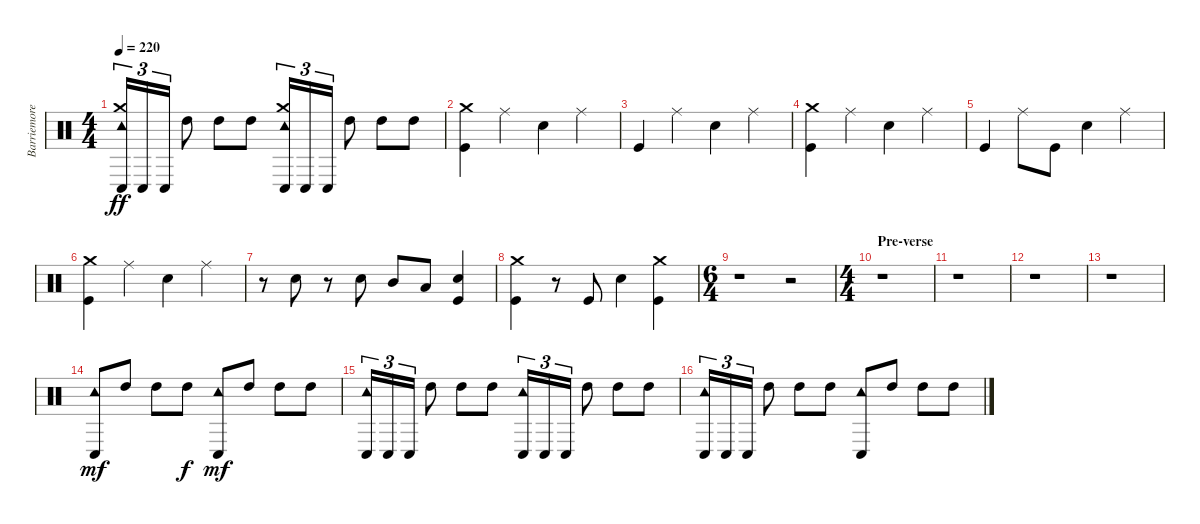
\track ("Barriemore Barlow (Drums)" "Barriemore") {instrument percussion}
\staff {score}
\articulation defaults
\ts (4 4)
\tempo 220
\clef neutral
\ks c
("Tambourine (hit)" "Crash medium (hit)" "Conga low (hit)").16{tu (3 2) dy ff} "Conga low (hit)".16{tu (3 2)} "Conga low (hit)".16{tu (3 2)} "High Tom (hit)".8 "High Tom (hit)".8 "High Tom (hit)".8 ("Tambourine (hit)" "Crash medium (hit)" "Conga low (hit)").16{tu (3 2)} "Conga low (hit)".16{tu (3 2)} "Conga low (hit)".16{tu (3 2)} "High Tom (hit)".8 "High Tom (hit)".8 "High Tom (hit)".8 |
("Kick (hit)" "Crash medium (hit)").4 "Ride (middle)".4 "Snare (hit) 2".4 "Ride (middle)".4 |
"Kick (hit)".4 "Ride (middle)".4 "Snare (hit) 2".4 "Ride (middle)".4 |
("Kick (hit)" "Crash medium (hit)").4 "Ride (middle)".4 "Snare (hit) 2".4 "Ride (middle)".4 |
"Kick (hit)".4 "Ride (middle)".8 "Kick (hit)".8 "Snare (hit) 2".4 "Ride (middle)".4 |
("Kick (hit)" "Crash medium (hit)").4 "Ride (middle)".4 "Snare (hit) 2".4 "Ride (middle)".4 |
r.8 "Snare (hit) 2".8 r.8 "Snare (hit) 2".8 "Mid Tom (hit)".8 "Low Tom (hit)".8 ("Kick (hit)" "Snare (hit) 2").4 |
("Kick (hit)" "Crash medium (hit)").4 r.8 "Kick (hit)".8 "Snare (hit) 2".4 ("Kick (hit)" "Crash medium (hit)").4 |
\ts (6 4)
r.1 r.2 |
\ts (4 4)
\section ("" "Pre-verse")
r.1 |
r.1 |
r.1 |
r.1 |
("Tambourine (hit)" "Conga low (hit)").8{dy mf} "High Tom (hit)".8 "High Tom (hit)".8 "High Tom (hit)".8{dy f} ("Tambourine (hit)" "Conga low (hit)").8{dy mf} "High Tom (hit)".8 "High Tom (hit)".8 "High Tom (hit)".8 |
("Tambourine (hit)" "Conga low (hit)").16{tu (3 2)} "Conga low (hit)".16{tu (3 2)} "Conga low (hit)".16{tu (3 2)} "High Tom (hit)".8 "High Tom (hit)".8 "High Tom (hit)".8 ("Tambourine (hit)" "Conga low (hit)").16{tu (3 2)} "Conga low (hit)".16{tu (3 2)} "Conga low (hit)".16{tu (3 2)} "High Tom (hit)".8 "High Tom (hit)".8 "High Tom (hit)".8 |
("Tambourine (hit)" "Conga low (hit)").16{tu (3 2)} "Conga low (hit)".16{tu (3 2)} "Conga low (hit)".16{tu (3 2)} "High Tom (hit)".8 "High Tom (hit)".8 "High Tom (hit)".8 ("Tambourine (hit)" "Conga low (hit)").8 "High Tom (hit)".8 "High Tom (hit)".8 "High Tom (hit)".8
